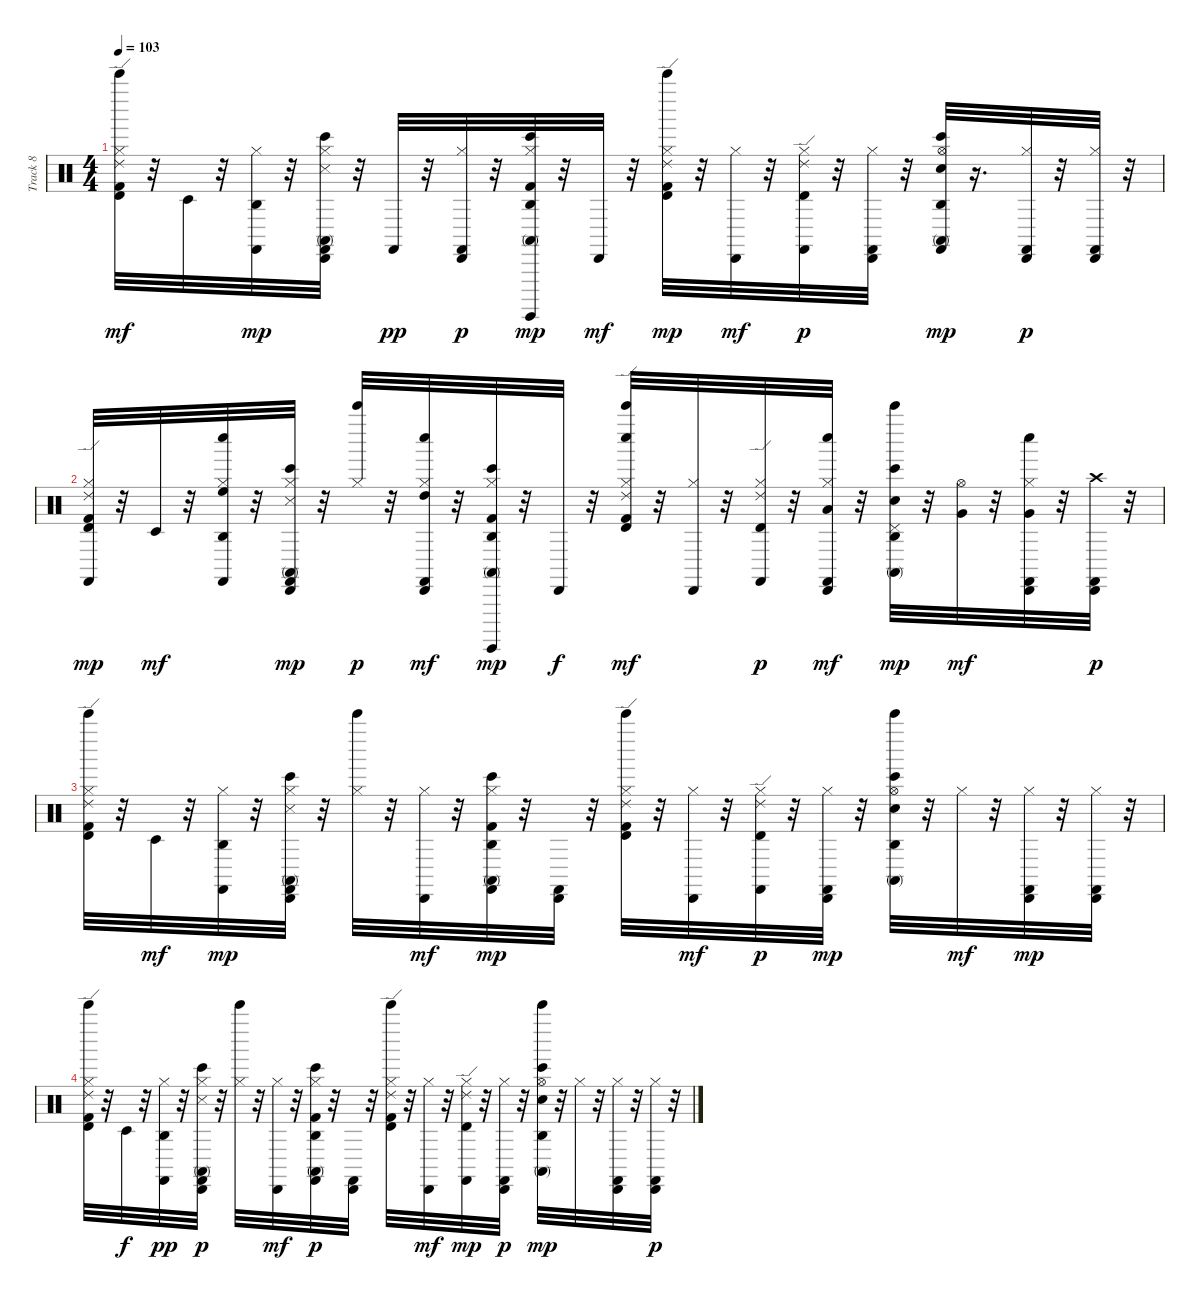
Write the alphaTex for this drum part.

\track ("Track 8" "Track 8") {instrument percussion}
\staff {score}
\articulation defaults
\ts (4 4)
\tempo 103
\clef neutral
\ks c
("Ride (edge) 2" "Timbale high (hit)" "Kick (hit) 2" "Hi-Hat (closed)" "Bell Tree (hit)").32{dy mf} r.32 "Timbale low (hit)".32 r.32 ("Agogo high (hit)" "Hi-Hat (closed)" "Castanets (hit)").32{dy mp} r.32 ("Bongo High (hit)" "Conga high (mute)" "Cabasa (hit)" "Snare (side stick) 3" "Hi-Hat (closed)" "Castanets (hit)").32 r.32 "Castanets (hit)".32{dy pp} r.32 ("Cabasa (hit)" "Hi-Hat (closed)" "Castanets (hit)").32{dy p} r.32 ("Bongo High (hit)" "Conga high (mute)" "Agogo high (hit)" "Kick (hit) 2" "Hi-Hat (closed)" "Surdo (hit)").32{dy mp} r.32 "Cabasa (hit)".32{dy mf} r.32 ("Ride (edge) 2" "Timbale high (hit)" "Kick (hit) 2" "Hi-Hat (closed)" "Bell Tree (hit)").32{dy mp} r.32 ("Cabasa (hit)" "Hi-Hat (closed)").32{dy mf} r.32 ("Ride (edge) 2" "Timbale high (hit)" "Hi-Hat (closed)" "Castanets (hit)").32{dy p} r.32 ("Cabasa (hit)" "Hi-Hat (closed)" "Castanets (hit)").32 r.32 ("Bongo High (hit)" "Conga high (mute)" "Agogo high (hit)" "Electric Snare (hit)" "Hi-Hat (open)" "Castanets (hit)").32{dy mp} r.16{d} ("Cabasa (hit)" "Hi-Hat (closed)" "Castanets (hit)").32{dy p} r.32 ("Cabasa (hit)" "Hi-Hat (closed)" "Castanets (hit)").32 r.32 |
("Ride (edge) 2" "Timbale high (hit)" "Kick (hit) 2" "Hi-Hat (closed)" "Castanets (hit)").32{dy mp} r.32 "Timbale low (hit)".32{dy mf} r.32 ("Agogo high (hit)" "Hi-Hat (closed)" "Castanets (hit)" "Whistle low (hit)" "High Floor Tom (hit)").32 r.32 ("Bongo High (hit)" "Conga high (mute)" "Cabasa (hit)" "Snare (side stick) 3" "Hi-Hat (closed)" "Castanets (hit)").32{dy mp} r.32 ("Hi-Hat (closed)" "Bell Tree (hit)").32{dy p} r.32 ("Cabasa (hit)" "Hi-Hat (closed)" "Castanets (hit)" "Whistle low (hit)" "High Tom (hit)").32{dy mf} r.32 ("Bongo High (hit)" "Conga high (mute)" "Agogo high (hit)" "Kick (hit) 2" "Hi-Hat (closed)" "Surdo (hit)").32{dy mp} r.32 "Cabasa (hit)".32{dy f} r.32 ("Ride (edge) 2" "Timbale high (hit)" "Kick (hit) 2" "Hi-Hat (closed)" "Bell Tree (hit)" "Whistle low (hit)").32{dy mf} r.32 ("Cabasa (hit)" "Hi-Hat (closed)").32 r.32 ("Ride (edge) 2" "Timbale high (hit)" "Hi-Hat (closed)" "Castanets (hit)").32{dy p} r.32 ("Cabasa (hit)" "Hi-Hat (closed)" "Castanets (hit)" "Whistle low (hit)" "Low Tom (hit)").32{dy mf} r.32 ("Bongo High (hit)" "Conga high (mute)" "Agogo high (hit)" "Electric Snare (hit)" "Pedal Hi-Hat (hit)" "Bell Tree (hit)").32{dy mp} r.32 ("Hi-Hat (open)" "Very Low Tom (hit)").32{dy mf} r.32 ("Cabasa (hit)" "Hi-Hat (closed)" "Castanets (hit)" "Whistle low (hit)" "Very Low Tom (hit)").32 r.32 ("Cabasa (hit)" "Castanets (hit)" "Crash high (hit)").32{dy p} r.32 |
("Ride (edge) 2" "Timbale high (hit)" "Kick (hit) 2" "Hi-Hat (closed)" "Bell Tree (hit)").32 r.32 "Timbale low (hit)".32{dy mf} r.32 ("Agogo high (hit)" "Hi-Hat (closed)" "Castanets (hit)").32{dy mp} r.32 ("Bongo High (hit)" "Conga high (mute)" "Cabasa (hit)" "Snare (side stick) 3" "Hi-Hat (closed)" "Castanets (hit)").32 r.32 ("Hi-Hat (closed)" "Bell Tree (hit)").32 r.32 ("Cabasa (hit)" "Hi-Hat (closed)").32{dy mf} r.32 ("Bongo High (hit)" "Conga high (mute)" "Agogo high (hit)" "Kick (hit) 2" "Hi-Hat (closed)" "Castanets (hit)").32{dy mp} r.32 ("Cabasa (hit)" "Castanets (hit)").32 r.32 ("Ride (edge) 2" "Timbale high (hit)" "Kick (hit) 2" "Hi-Hat (closed)" "Bell Tree (hit)").32 r.32 ("Cabasa (hit)" "Hi-Hat (closed)").32{dy mf} r.32 ("Ride (edge) 2" "Timbale high (hit)" "Hi-Hat (closed)" "Castanets (hit)").32{dy p} r.32 ("Cabasa (hit)" "Hi-Hat (closed)" "Castanets (hit)").32{dy mp} r.32 ("Conga high (mute)" "Bongo High (hit)" "Agogo high (hit)" "Electric Snare (hit)" "Hi-Hat (open)" "Bell Tree (hit)").32 r.32 "Hi-Hat (closed)".32{dy mf} r.32 ("Cabasa (hit)" "Hi-Hat (closed)" "Castanets (hit)").32{dy mp} r.32 ("Cabasa (hit)" "Hi-Hat (closed)" "Castanets (hit)").32 r.32 |
("Ride (edge) 2" "Timbale high (hit)" "Kick (hit) 2" "Hi-Hat (closed)" "Bell Tree (hit)").32 r.32 "Timbale low (hit)".32{dy f} r.32 ("Agogo high (hit)" "Hi-Hat (closed)" "Castanets (hit)").32{dy pp} r.32 ("Bongo High (hit)" "Conga high (mute)" "Cabasa (hit)" "Snare (side stick) 3" "Hi-Hat (closed)" "Castanets (hit)").32{dy p} r.32 ("Hi-Hat (closed)" "Bell Tree (hit)").32 r.32 ("Cabasa (hit)" "Hi-Hat (closed)").32{dy mf} r.32 ("Bongo High (hit)" "Conga high (mute)" "Agogo high (hit)" "Kick (hit) 2" "Hi-Hat (closed)" "Castanets (hit)").32{dy p} r.32 ("Cabasa (hit)" "Castanets (hit)").32 r.32 ("Ride (edge) 2" "Timbale high (hit)" "Kick (hit) 2" "Hi-Hat (closed)" "Bell Tree (hit)").32 r.32 ("Cabasa (hit)" "Hi-Hat (closed)").32{dy mf} r.32 ("Ride (edge) 2" "Timbale high (hit)" "Hi-Hat (closed)" "Castanets (hit)").32{dy mp} r.32 ("Cabasa (hit)" "Hi-Hat (closed)" "Castanets (hit)").32{dy p} r.32 ("Bongo High (hit)" "Conga high (mute)" "Agogo high (hit)" "Hi-Hat (open)" "Electric Snare (hit)" "Bell Tree (hit)").32{dy mp} r.32 "Hi-Hat (closed)".32 r.32 ("Cabasa (hit)" "Hi-Hat (closed)" "Castanets (hit)").32 r.32 ("Cabasa (hit)" "Hi-Hat (closed)" "Castanets (hit)").32{dy p} r.32
